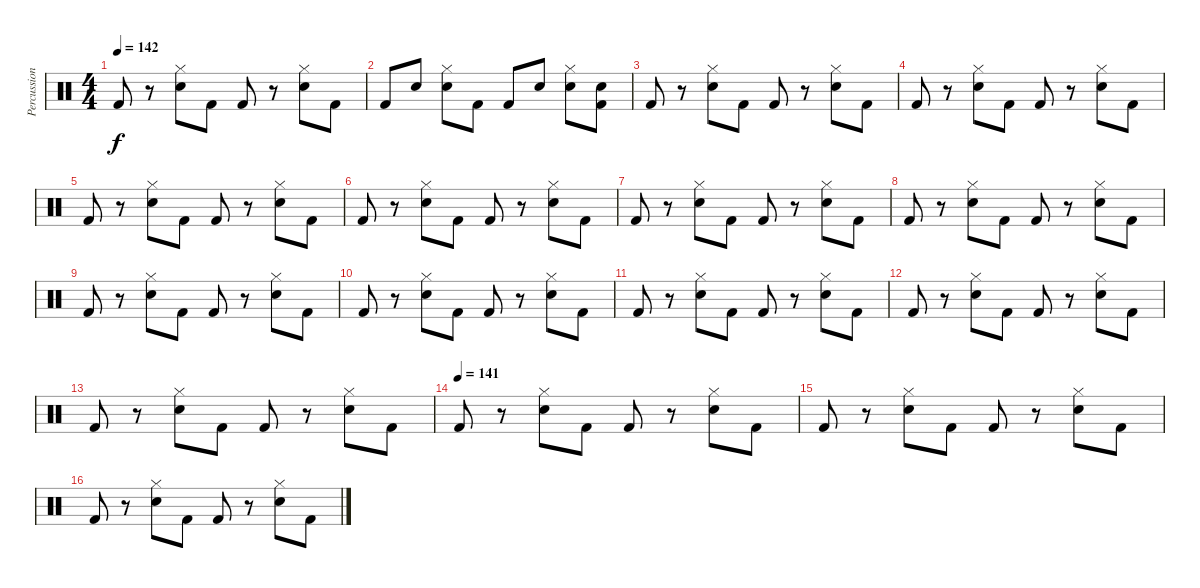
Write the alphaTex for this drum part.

\track ("Percussion" "Percussion") {instrument percussion}
\staff {score}
\articulation defaults
\ts (4 4)
\tempo 142
\clef neutral
\ks c "Kick (hit) 2".8{dy f}
r.8 ("Hi-Hat (closed)" "Snare (hit) 2").8 "Kick (hit) 2".8 "Kick (hit) 2".8 r.8 ("Hi-Hat (closed)" "Snare (hit) 2").8 "Kick (hit) 2".8 |
"Kick (hit) 2".8 "Snare (hit) 2".8 ("Hi-Hat (closed)" "Snare (hit) 2").8 "Kick (hit) 2".8 "Kick (hit) 2".8 "Snare (hit) 2".8 ("Hi-Hat (closed)" "Snare (hit) 2").8 ("Snare (hit) 2" "Kick (hit) 2").8 |
"Kick (hit) 2".8 r.8 ("Hi-Hat (closed)" "Snare (hit) 2").8 "Kick (hit) 2".8 "Kick (hit) 2".8 r.8 ("Hi-Hat (closed)" "Snare (hit) 2").8 "Kick (hit) 2".8 |
"Kick (hit) 2".8 r.8 ("Hi-Hat (closed)" "Snare (hit) 2").8 "Kick (hit) 2".8 "Kick (hit) 2".8 r.8 ("Hi-Hat (closed)" "Snare (hit) 2").8 "Kick (hit) 2".8 |
"Kick (hit) 2".8 r.8 ("Hi-Hat (closed)" "Snare (hit) 2").8 "Kick (hit) 2".8 "Kick (hit) 2".8 r.8 ("Hi-Hat (closed)" "Snare (hit) 2").8 "Kick (hit) 2".8 |
"Kick (hit) 2".8 r.8 ("Hi-Hat (closed)" "Snare (hit) 2").8 "Kick (hit) 2".8 "Kick (hit) 2".8 r.8 ("Hi-Hat (closed)" "Snare (hit) 2").8 "Kick (hit) 2".8 |
"Kick (hit) 2".8 r.8 ("Hi-Hat (closed)" "Snare (hit) 2").8 "Kick (hit) 2".8 "Kick (hit) 2".8 r.8 ("Hi-Hat (closed)" "Snare (hit) 2").8 "Kick (hit) 2".8 |
"Kick (hit) 2".8 r.8 ("Hi-Hat (closed)" "Snare (hit) 2").8 "Kick (hit) 2".8 "Kick (hit) 2".8 r.8 ("Hi-Hat (closed)" "Snare (hit) 2").8 "Kick (hit) 2".8 |
"Kick (hit) 2".8 r.8 ("Hi-Hat (closed)" "Snare (hit) 2").8 "Kick (hit) 2".8 "Kick (hit) 2".8 r.8 ("Hi-Hat (closed)" "Snare (hit) 2").8 "Kick (hit) 2".8 |
"Kick (hit) 2".8 r.8 ("Hi-Hat (closed)" "Snare (hit) 2").8 "Kick (hit) 2".8 "Kick (hit) 2".8 r.8 ("Hi-Hat (closed)" "Snare (hit) 2").8 "Kick (hit) 2".8 |
"Kick (hit) 2".8 r.8 ("Hi-Hat (closed)" "Snare (hit) 2").8 "Kick (hit) 2".8 "Kick (hit) 2".8 r.8 ("Hi-Hat (closed)" "Snare (hit) 2").8 "Kick (hit) 2".8 |
"Kick (hit) 2".8 r.8 ("Hi-Hat (closed)" "Snare (hit) 2").8 "Kick (hit) 2".8 "Kick (hit) 2".8 r.8 ("Hi-Hat (closed)" "Snare (hit) 2").8 "Kick (hit) 2".8 |
"Kick (hit) 2".8 r.8 ("Hi-Hat (closed)" "Snare (hit) 2").8 "Kick (hit) 2".8 "Kick (hit) 2".8 r.8 ("Hi-Hat (closed)" "Snare (hit) 2").8 "Kick (hit) 2".8 |
\tempo (141)
"Kick (hit) 2".8 r.8 ("Hi-Hat (closed)" "Snare (hit) 2").8 "Kick (hit) 2".8 "Kick (hit) 2".8 r.8 ("Hi-Hat (closed)" "Snare (hit) 2").8 "Kick (hit) 2".8 |
"Kick (hit) 2".8 r.8 ("Hi-Hat (closed)" "Snare (hit) 2").8 "Kick (hit) 2".8 "Kick (hit) 2".8 r.8 ("Hi-Hat (closed)" "Snare (hit) 2").8 "Kick (hit) 2".8 |
"Kick (hit) 2".8 r.8 ("Hi-Hat (closed)" "Snare (hit) 2").8 "Kick (hit) 2".8 "Kick (hit) 2".8 r.8 ("Hi-Hat (closed)" "Snare (hit) 2").8 "Kick (hit) 2".8
